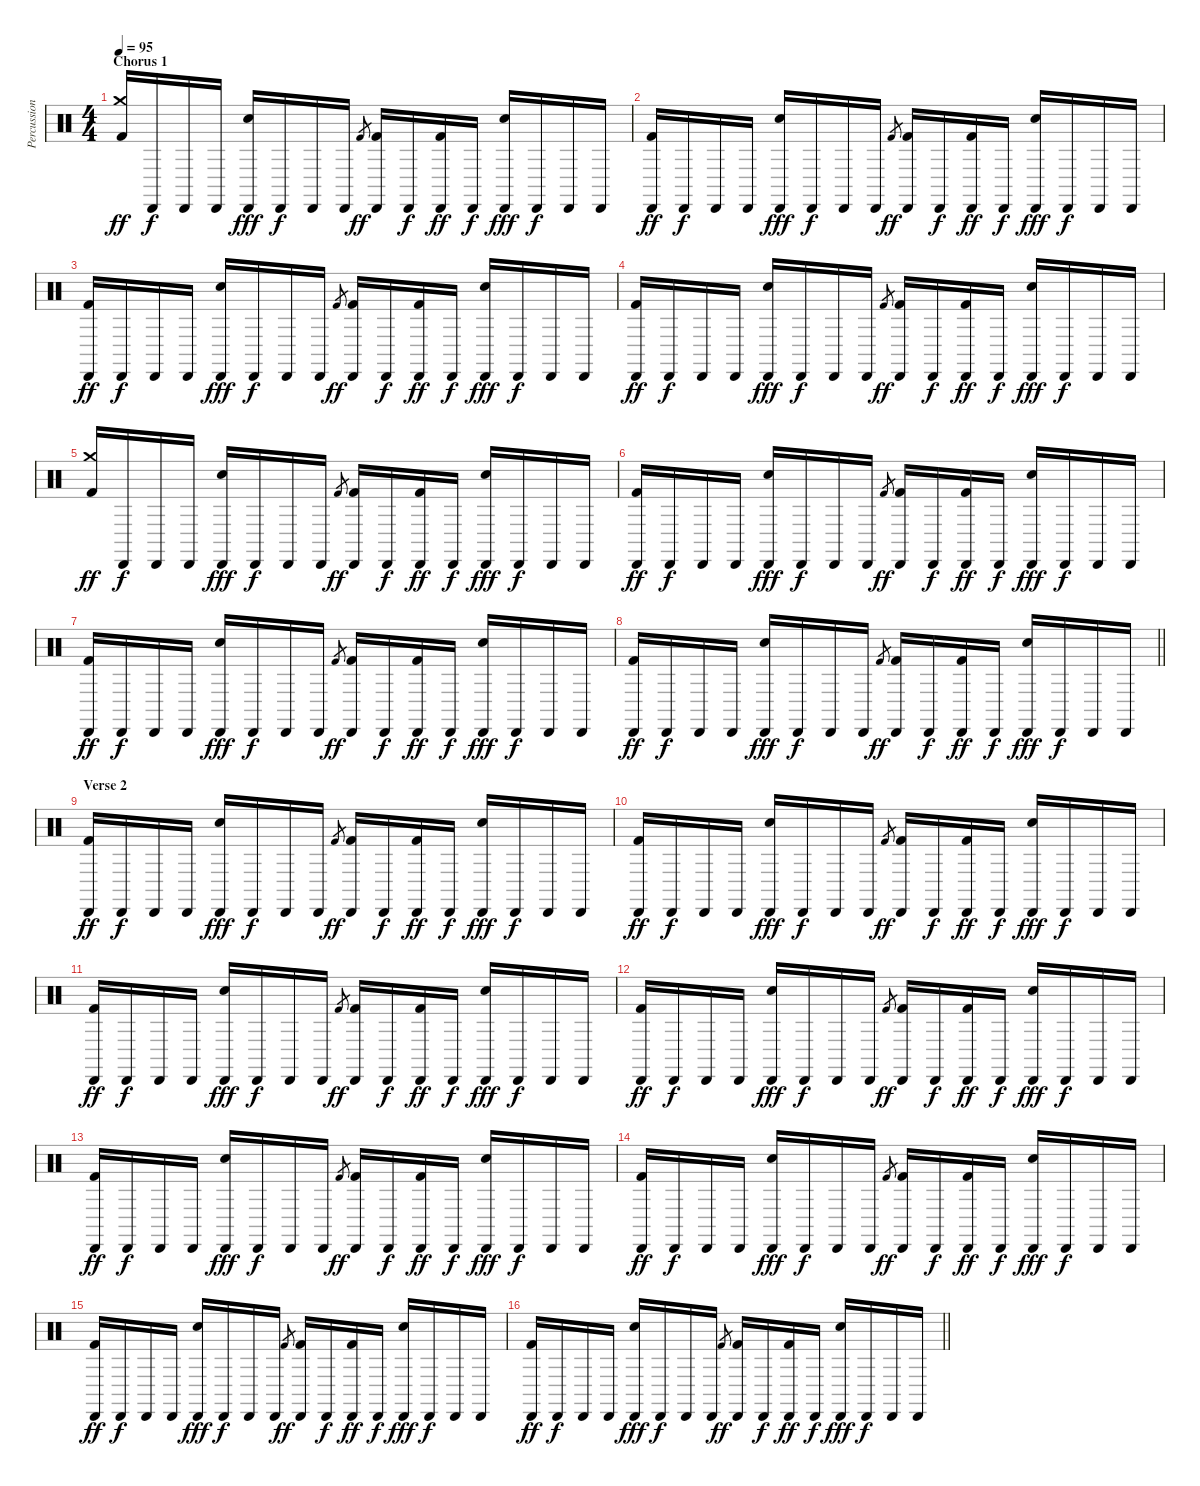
\track ("Percussion" "Percussion") {instrument percussion}
\staff {score}
\articulation defaults
\ts (4 4)
\section ("" "Chorus 1")
\tempo 95
\clef neutral
\ks c
("Crash medium (hit)" "Kick (hit) 2").16{dy ff} "Cabasa (hit)".16{dy f} "Cabasa (hit)".16 "Cabasa (hit)".16 ("Cabasa (hit)" "Electric Snare (hit)").16{dy fff} "Cabasa (hit)".16{dy f} "Cabasa (hit)".16 "Cabasa (hit)".16 "Kick (hit) 2".8{gr dy ff} ("Cabasa (hit)" "Kick (hit) 2").16 "Cabasa (hit)".16{dy f} ("Cabasa (hit)" "Kick (hit) 2").16{dy ff} "Cabasa (hit)".16{dy f} ("Cabasa (hit)" "Electric Snare (hit)").16{dy fff} "Cabasa (hit)".16{dy f} "Cabasa (hit)".16 "Cabasa (hit)".16 |
("Cabasa (hit)" "Kick (hit) 2").16{dy ff} "Cabasa (hit)".16{dy f} "Cabasa (hit)".16 "Cabasa (hit)".16 ("Cabasa (hit)" "Electric Snare (hit)").16{dy fff} "Cabasa (hit)".16{dy f} "Cabasa (hit)".16 "Cabasa (hit)".16 "Kick (hit) 2".8{gr dy ff} ("Cabasa (hit)" "Kick (hit) 2").16 "Cabasa (hit)".16{dy f} ("Cabasa (hit)" "Kick (hit) 2").16{dy ff} "Cabasa (hit)".16{dy f} ("Cabasa (hit)" "Electric Snare (hit)").16{dy fff} "Cabasa (hit)".16{dy f} "Cabasa (hit)".16 "Cabasa (hit)".16 |
("Cabasa (hit)" "Kick (hit) 2").16{dy ff} "Cabasa (hit)".16{dy f} "Cabasa (hit)".16 "Cabasa (hit)".16 ("Cabasa (hit)" "Electric Snare (hit)").16{dy fff} "Cabasa (hit)".16{dy f} "Cabasa (hit)".16 "Cabasa (hit)".16 "Kick (hit) 2".8{gr dy ff} ("Cabasa (hit)" "Kick (hit) 2").16 "Cabasa (hit)".16{dy f} ("Cabasa (hit)" "Kick (hit) 2").16{dy ff} "Cabasa (hit)".16{dy f} ("Cabasa (hit)" "Electric Snare (hit)").16{dy fff} "Cabasa (hit)".16{dy f} "Cabasa (hit)".16 "Cabasa (hit)".16 |
("Cabasa (hit)" "Kick (hit) 2").16{dy ff} "Cabasa (hit)".16{dy f} "Cabasa (hit)".16 "Cabasa (hit)".16 ("Cabasa (hit)" "Electric Snare (hit)").16{dy fff} "Cabasa (hit)".16{dy f} "Cabasa (hit)".16 "Cabasa (hit)".16 "Kick (hit) 2".8{gr dy ff} ("Cabasa (hit)" "Kick (hit) 2").16 "Cabasa (hit)".16{dy f} ("Cabasa (hit)" "Kick (hit) 2").16{dy ff} "Cabasa (hit)".16{dy f} ("Cabasa (hit)" "Electric Snare (hit)").16{dy fff} "Cabasa (hit)".16{dy f} "Cabasa (hit)".16 "Cabasa (hit)".16 |
("Crash medium (hit)" "Kick (hit) 2").16{dy ff} "Cabasa (hit)".16{dy f} "Cabasa (hit)".16 "Cabasa (hit)".16 ("Cabasa (hit)" "Electric Snare (hit)").16{dy fff} "Cabasa (hit)".16{dy f} "Cabasa (hit)".16 "Cabasa (hit)".16 "Kick (hit) 2".8{gr dy ff} ("Cabasa (hit)" "Kick (hit) 2").16 "Cabasa (hit)".16{dy f} ("Cabasa (hit)" "Kick (hit) 2").16{dy ff} "Cabasa (hit)".16{dy f} ("Cabasa (hit)" "Electric Snare (hit)").16{dy fff} "Cabasa (hit)".16{dy f} "Cabasa (hit)".16 "Cabasa (hit)".16 |
("Cabasa (hit)" "Kick (hit) 2").16{dy ff} "Cabasa (hit)".16{dy f} "Cabasa (hit)".16 "Cabasa (hit)".16 ("Cabasa (hit)" "Electric Snare (hit)").16{dy fff} "Cabasa (hit)".16{dy f} "Cabasa (hit)".16 "Cabasa (hit)".16 "Kick (hit) 2".8{gr dy ff} ("Cabasa (hit)" "Kick (hit) 2").16 "Cabasa (hit)".16{dy f} ("Cabasa (hit)" "Kick (hit) 2").16{dy ff} "Cabasa (hit)".16{dy f} ("Cabasa (hit)" "Electric Snare (hit)").16{dy fff} "Cabasa (hit)".16{dy f} "Cabasa (hit)".16 "Cabasa (hit)".16 |
("Cabasa (hit)" "Kick (hit) 2").16{dy ff} "Cabasa (hit)".16{dy f} "Cabasa (hit)".16 "Cabasa (hit)".16 ("Cabasa (hit)" "Electric Snare (hit)").16{dy fff} "Cabasa (hit)".16{dy f} "Cabasa (hit)".16 "Cabasa (hit)".16 "Kick (hit) 2".8{gr dy ff} ("Cabasa (hit)" "Kick (hit) 2").16 "Cabasa (hit)".16{dy f} ("Cabasa (hit)" "Kick (hit) 2").16{dy ff} "Cabasa (hit)".16{dy f} ("Cabasa (hit)" "Electric Snare (hit)").16{dy fff} "Cabasa (hit)".16{dy f} "Cabasa (hit)".16 "Cabasa (hit)".16 |
\barLineRight lightlight
("Cabasa (hit)" "Kick (hit) 2").16{dy ff} "Cabasa (hit)".16{dy f} "Cabasa (hit)".16 "Cabasa (hit)".16 ("Cabasa (hit)" "Electric Snare (hit)").16{dy fff} "Cabasa (hit)".16{dy f} "Cabasa (hit)".16 "Cabasa (hit)".16 "Kick (hit) 2".8{gr dy ff} ("Cabasa (hit)" "Kick (hit) 2").16 "Cabasa (hit)".16{dy f} ("Cabasa (hit)" "Kick (hit) 2").16{dy ff} "Cabasa (hit)".16{dy f} ("Cabasa (hit)" "Electric Snare (hit)").16{dy fff} "Cabasa (hit)".16{dy f} "Cabasa (hit)".16 "Cabasa (hit)".16 |
\section ("" "Verse 2")
("Cabasa (hit)" "Kick (hit) 2").16{dy ff} "Cabasa (hit)".16{dy f} "Cabasa (hit)".16 "Cabasa (hit)".16 ("Cabasa (hit)" "Electric Snare (hit)").16{dy fff} "Cabasa (hit)".16{dy f} "Cabasa (hit)".16 "Cabasa (hit)".16 "Kick (hit) 2".8{gr dy ff} ("Cabasa (hit)" "Kick (hit) 2").16 "Cabasa (hit)".16{dy f} ("Cabasa (hit)" "Kick (hit) 2").16{dy ff} "Cabasa (hit)".16{dy f} ("Cabasa (hit)" "Electric Snare (hit)").16{dy fff} "Cabasa (hit)".16{dy f} "Cabasa (hit)".16 "Cabasa (hit)".16 |
("Cabasa (hit)" "Kick (hit) 2").16{dy ff} "Cabasa (hit)".16{dy f} "Cabasa (hit)".16 "Cabasa (hit)".16 ("Cabasa (hit)" "Electric Snare (hit)").16{dy fff} "Cabasa (hit)".16{dy f} "Cabasa (hit)".16 "Cabasa (hit)".16 "Kick (hit) 2".8{gr dy ff} ("Cabasa (hit)" "Kick (hit) 2").16 "Cabasa (hit)".16{dy f} ("Cabasa (hit)" "Kick (hit) 2").16{dy ff} "Cabasa (hit)".16{dy f} ("Cabasa (hit)" "Electric Snare (hit)").16{dy fff} "Cabasa (hit)".16{dy f} "Cabasa (hit)".16 "Cabasa (hit)".16 |
("Cabasa (hit)" "Kick (hit) 2").16{dy ff} "Cabasa (hit)".16{dy f} "Cabasa (hit)".16 "Cabasa (hit)".16 ("Cabasa (hit)" "Electric Snare (hit)").16{dy fff} "Cabasa (hit)".16{dy f} "Cabasa (hit)".16 "Cabasa (hit)".16 "Kick (hit) 2".8{gr dy ff} ("Cabasa (hit)" "Kick (hit) 2").16 "Cabasa (hit)".16{dy f} ("Cabasa (hit)" "Kick (hit) 2").16{dy ff} "Cabasa (hit)".16{dy f} ("Cabasa (hit)" "Electric Snare (hit)").16{dy fff} "Cabasa (hit)".16{dy f} "Cabasa (hit)".16 "Cabasa (hit)".16 |
("Cabasa (hit)" "Kick (hit) 2").16{dy ff} "Cabasa (hit)".16{dy f} "Cabasa (hit)".16 "Cabasa (hit)".16 ("Cabasa (hit)" "Electric Snare (hit)").16{dy fff} "Cabasa (hit)".16{dy f} "Cabasa (hit)".16 "Cabasa (hit)".16 "Kick (hit) 2".8{gr dy ff} ("Cabasa (hit)" "Kick (hit) 2").16 "Cabasa (hit)".16{dy f} ("Cabasa (hit)" "Kick (hit) 2").16{dy ff} "Cabasa (hit)".16{dy f} ("Cabasa (hit)" "Electric Snare (hit)").16{dy fff} "Cabasa (hit)".16{dy f} "Cabasa (hit)".16 "Cabasa (hit)".16 |
("Cabasa (hit)" "Kick (hit) 2").16{dy ff} "Cabasa (hit)".16{dy f} "Cabasa (hit)".16 "Cabasa (hit)".16 ("Cabasa (hit)" "Electric Snare (hit)").16{dy fff} "Cabasa (hit)".16{dy f} "Cabasa (hit)".16 "Cabasa (hit)".16 "Kick (hit) 2".8{gr dy ff} ("Cabasa (hit)" "Kick (hit) 2").16 "Cabasa (hit)".16{dy f} ("Cabasa (hit)" "Kick (hit) 2").16{dy ff} "Cabasa (hit)".16{dy f} ("Cabasa (hit)" "Electric Snare (hit)").16{dy fff} "Cabasa (hit)".16{dy f} "Cabasa (hit)".16 "Cabasa (hit)".16 |
("Cabasa (hit)" "Kick (hit) 2").16{dy ff} "Cabasa (hit)".16{dy f} "Cabasa (hit)".16 "Cabasa (hit)".16 ("Cabasa (hit)" "Electric Snare (hit)").16{dy fff} "Cabasa (hit)".16{dy f} "Cabasa (hit)".16 "Cabasa (hit)".16 "Kick (hit) 2".8{gr dy ff} ("Cabasa (hit)" "Kick (hit) 2").16 "Cabasa (hit)".16{dy f} ("Cabasa (hit)" "Kick (hit) 2").16{dy ff} "Cabasa (hit)".16{dy f} ("Cabasa (hit)" "Electric Snare (hit)").16{dy fff} "Cabasa (hit)".16{dy f} "Cabasa (hit)".16 "Cabasa (hit)".16 |
("Cabasa (hit)" "Kick (hit) 2").16{dy ff} "Cabasa (hit)".16{dy f} "Cabasa (hit)".16 "Cabasa (hit)".16 ("Cabasa (hit)" "Electric Snare (hit)").16{dy fff} "Cabasa (hit)".16{dy f} "Cabasa (hit)".16 "Cabasa (hit)".16 "Kick (hit) 2".8{gr dy ff} ("Cabasa (hit)" "Kick (hit) 2").16 "Cabasa (hit)".16{dy f} ("Cabasa (hit)" "Kick (hit) 2").16{dy ff} "Cabasa (hit)".16{dy f} ("Cabasa (hit)" "Electric Snare (hit)").16{dy fff} "Cabasa (hit)".16{dy f} "Cabasa (hit)".16 "Cabasa (hit)".16 |
\barLineRight lightlight
("Cabasa (hit)" "Kick (hit) 2").16{dy ff} "Cabasa (hit)".16{dy f} "Cabasa (hit)".16 "Cabasa (hit)".16 ("Cabasa (hit)" "Electric Snare (hit)").16{dy fff} "Cabasa (hit)".16{dy f} "Cabasa (hit)".16 "Cabasa (hit)".16 "Kick (hit) 2".8{gr dy ff} ("Cabasa (hit)" "Kick (hit) 2").16 "Cabasa (hit)".16{dy f} ("Cabasa (hit)" "Kick (hit) 2").16{dy ff} "Cabasa (hit)".16{dy f} ("Cabasa (hit)" "Electric Snare (hit)").16{dy fff} "Cabasa (hit)".16{dy f} "Cabasa (hit)".16 "Cabasa (hit)".16
